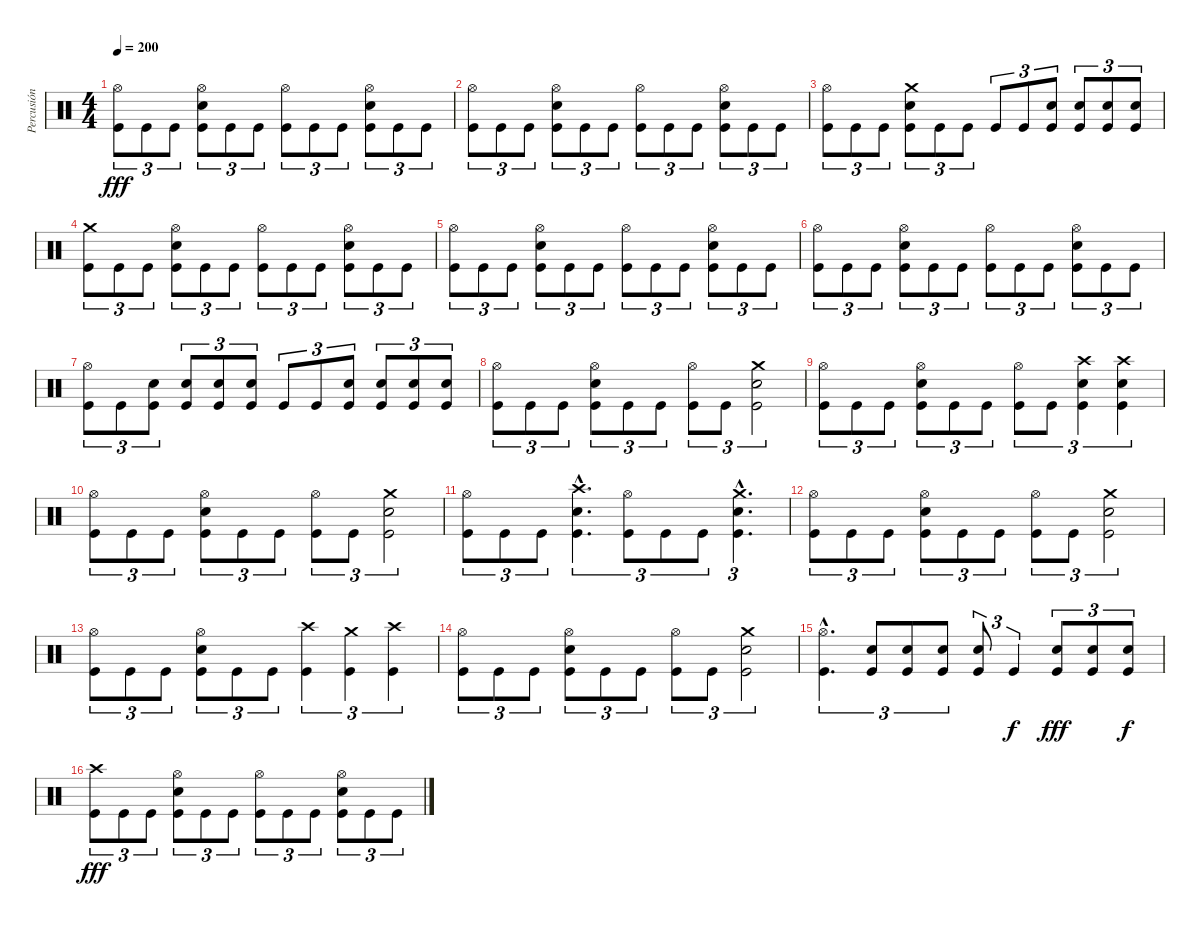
\track ("Percusión" "Percusión") {instrument percussion}
\staff {score}
\articulation defaults
\ts (4 4)
\tempo 200
\clef neutral
\ks c
("Hi-Hat (open)" "Kick (hit)").8{tu (3 2) dy fff} "Kick (hit)".8{tu (3 2)} "Kick (hit)".8{tu (3 2)} ("Hi-Hat (open)" "Electric Snare (hit)" "Kick (hit)").8{tu (3 2)} "Kick (hit)".8{tu (3 2)} "Kick (hit)".8{tu (3 2)} ("Hi-Hat (open)" "Kick (hit)").8{tu (3 2)} "Kick (hit)".8{tu (3 2)} "Kick (hit)".8{tu (3 2)} ("Hi-Hat (open)" "Electric Snare (hit)" "Kick (hit)").8{tu (3 2)} "Kick (hit)".8{tu (3 2)} "Kick (hit)".8{tu (3 2)} |
("Hi-Hat (open)" "Kick (hit)").8{tu (3 2)} "Kick (hit)".8{tu (3 2)} "Kick (hit)".8{tu (3 2)} ("Hi-Hat (open)" "Electric Snare (hit)" "Kick (hit)").8{tu (3 2)} "Kick (hit)".8{tu (3 2)} "Kick (hit)".8{tu (3 2)} ("Hi-Hat (open)" "Kick (hit)").8{tu (3 2)} "Kick (hit)".8{tu (3 2)} "Kick (hit)".8{tu (3 2)} ("Hi-Hat (open)" "Electric Snare (hit)" "Kick (hit)").8{tu (3 2)} "Kick (hit)".8{tu (3 2)} "Kick (hit)".8{tu (3 2)} |
("Hi-Hat (open)" "Kick (hit)").8{tu (3 2)} "Kick (hit)".8{tu (3 2)} "Kick (hit)".8{tu (3 2)} ("Crash medium (hit)" "Electric Snare (hit)" "Kick (hit)").8{tu (3 2)} "Kick (hit)".8{tu (3 2)} "Kick (hit)".8{tu (3 2)} "Kick (hit)".8{tu (3 2)} "Kick (hit)".8{tu (3 2)} ("Electric Snare (hit)" "Kick (hit)").8{tu (3 2)} ("Electric Snare (hit)" "Kick (hit)").8{tu (3 2)} ("Electric Snare (hit)" "Kick (hit)").8{tu (3 2)} ("Electric Snare (hit)" "Kick (hit)").8{tu (3 2)} |
("Crash medium (hit)" "Kick (hit)").8{tu (3 2)} "Kick (hit)".8{tu (3 2)} "Kick (hit)".8{tu (3 2)} ("Hi-Hat (open)" "Electric Snare (hit)" "Kick (hit)").8{tu (3 2)} "Kick (hit)".8{tu (3 2)} "Kick (hit)".8{tu (3 2)} ("Hi-Hat (open)" "Kick (hit)").8{tu (3 2)} "Kick (hit)".8{tu (3 2)} "Kick (hit)".8{tu (3 2)} ("Hi-Hat (open)" "Electric Snare (hit)" "Kick (hit)").8{tu (3 2)} "Kick (hit)".8{tu (3 2)} "Kick (hit)".8{tu (3 2)} |
("Hi-Hat (open)" "Kick (hit)").8{tu (3 2)} "Kick (hit)".8{tu (3 2)} "Kick (hit)".8{tu (3 2)} ("Hi-Hat (open)" "Electric Snare (hit)" "Kick (hit)").8{tu (3 2)} "Kick (hit)".8{tu (3 2)} "Kick (hit)".8{tu (3 2)} ("Hi-Hat (open)" "Kick (hit)").8{tu (3 2)} "Kick (hit)".8{tu (3 2)} "Kick (hit)".8{tu (3 2)} ("Hi-Hat (open)" "Electric Snare (hit)" "Kick (hit)").8{tu (3 2)} "Kick (hit)".8{tu (3 2)} "Kick (hit)".8{tu (3 2)} |
("Hi-Hat (open)" "Kick (hit)").8{tu (3 2)} "Kick (hit)".8{tu (3 2)} "Kick (hit)".8{tu (3 2)} ("Hi-Hat (open)" "Electric Snare (hit)" "Kick (hit)").8{tu (3 2)} "Kick (hit)".8{tu (3 2)} "Kick (hit)".8{tu (3 2)} ("Hi-Hat (open)" "Kick (hit)").8{tu (3 2)} "Kick (hit)".8{tu (3 2)} "Kick (hit)".8{tu (3 2)} ("Hi-Hat (open)" "Electric Snare (hit)" "Kick (hit)").8{tu (3 2)} "Kick (hit)".8{tu (3 2)} "Kick (hit)".8{tu (3 2)} |
("Hi-Hat (open)" "Kick (hit)").8{tu (3 2)} "Kick (hit)".8{tu (3 2)} ("Electric Snare (hit)" "Kick (hit)").8{tu (3 2)} ("Electric Snare (hit)" "Kick (hit)").8{tu (3 2)} ("Electric Snare (hit)" "Kick (hit)").8{tu (3 2)} ("Electric Snare (hit)" "Kick (hit)").8{tu (3 2)} "Kick (hit)".8{tu (3 2)} "Kick (hit)".8{tu (3 2)} ("Electric Snare (hit)" "Kick (hit)").8{tu (3 2)} ("Electric Snare (hit)" "Kick (hit)").8{tu (3 2)} ("Electric Snare (hit)" "Kick (hit)").8{tu (3 2)} ("Electric Snare (hit)" "Kick (hit)").8{tu (3 2)} |
("Hi-Hat (open)" "Kick (hit)").8{tu (3 2)} "Kick (hit)".8{tu (3 2)} "Kick (hit)".8{tu (3 2)} ("Hi-Hat (open)" "Electric Snare (hit)" "Kick (hit)").8{tu (3 2)} "Kick (hit)".8{tu (3 2)} "Kick (hit)".8{tu (3 2)} ("Hi-Hat (open)" "Kick (hit)").8{tu (3 2)} "Kick (hit)".8{tu (3 2)} ("Crash medium (hit)" "Electric Snare (hit)" "Kick (hit)").2{tu (3 2)} |
("Hi-Hat (open)" "Kick (hit)").8{tu (3 2)} "Kick (hit)".8{tu (3 2)} "Kick (hit)".8{tu (3 2)} ("Hi-Hat (open)" "Electric Snare (hit)" "Kick (hit)").8{tu (3 2)} "Kick (hit)".8{tu (3 2)} "Kick (hit)".8{tu (3 2)} ("Hi-Hat (open)" "Kick (hit)").8{tu (3 2)} "Kick (hit)".8{tu (3 2)} ("Crash high (hit)" "Electric Snare (hit)" "Kick (hit)").4{tu (3 2)} ("Crash high (hit)" "Electric Snare (hit)" "Kick (hit)").4{tu (3 2)} |
("Hi-Hat (open)" "Kick (hit)").8{tu (3 2)} "Kick (hit)".8{tu (3 2)} "Kick (hit)".8{tu (3 2)} ("Hi-Hat (open)" "Electric Snare (hit)" "Kick (hit)").8{tu (3 2)} "Kick (hit)".8{tu (3 2)} "Kick (hit)".8{tu (3 2)} ("Hi-Hat (open)" "Kick (hit)").8{tu (3 2)} "Kick (hit)".8{tu (3 2)} ("Crash medium (hit)" "Electric Snare (hit)" "Kick (hit)").2{tu (3 2)} |
("Hi-Hat (open)" "Kick (hit)").8{tu (3 2)} "Kick (hit)".8{tu (3 2)} "Kick (hit)".8{tu (3 2)} ("Crash high (hit)"{hac} "Electric Snare (hit)"{hac} "Kick (hit)"{hac}).4{d tu (3 2)} ("Hi-Hat (open)" "Kick (hit)").8{tu (3 2)} "Kick (hit)".8{tu (3 2)} "Kick (hit)".8{tu (3 2)} ("Crash medium (hit)"{hac} "Electric Snare (hit)"{hac} "Kick (hit)"{hac}).4{d tu (3 2)} |
("Hi-Hat (open)" "Kick (hit)").8{tu (3 2)} "Kick (hit)".8{tu (3 2)} "Kick (hit)".8{tu (3 2)} ("Hi-Hat (open)" "Electric Snare (hit)" "Kick (hit)").8{tu (3 2)} "Kick (hit)".8{tu (3 2)} "Kick (hit)".8{tu (3 2)} ("Hi-Hat (open)" "Kick (hit)").8{tu (3 2)} "Kick (hit)".8{tu (3 2)} ("Crash medium (hit)" "Electric Snare (hit)" "Kick (hit)").2{tu (3 2)} |
("Hi-Hat (open)" "Kick (hit)").8{tu (3 2)} "Kick (hit)".8{tu (3 2)} "Kick (hit)".8{tu (3 2)} ("Hi-Hat (open)" "Electric Snare (hit)" "Kick (hit)").8{tu (3 2)} "Kick (hit)".8{tu (3 2)} "Kick (hit)".8{tu (3 2)} ("Crash high (hit)" "Kick (hit)").4{tu (3 2)} ("Crash medium (hit)" "Kick (hit)").4{tu (3 2)} ("Crash high (hit)" "Kick (hit)").4{tu (3 2)} |
("Hi-Hat (open)" "Kick (hit)").8{tu (3 2)} "Kick (hit)".8{tu (3 2)} "Kick (hit)".8{tu (3 2)} ("Hi-Hat (open)" "Electric Snare (hit)" "Kick (hit)").8{tu (3 2)} "Kick (hit)".8{tu (3 2)} "Kick (hit)".8{tu (3 2)} ("Hi-Hat (open)" "Kick (hit)").8{tu (3 2)} "Kick (hit)".8{tu (3 2)} ("Crash medium (hit)" "Electric Snare (hit)" "Kick (hit)").2{tu (3 2)} |
("Hi-Hat (open)"{hac} "Kick (hit)"{hac}).4{d tu (3 2)} ("Electric Snare (hit)" "Kick (hit)").8{tu (3 2)} ("Electric Snare (hit)" "Kick (hit)").8{tu (3 2)} ("Electric Snare (hit)" "Kick (hit)").8{tu (3 2)} ("Electric Snare (hit)" "Kick (hit)").8{tu (3 2)} "Kick (hit)".4{tu (3 2) dy f} ("Electric Snare (hit)" "Kick (hit)").8{tu (3 2) dy fff} ("Electric Snare (hit)" "Kick (hit)").8{tu (3 2)} ("Electric Snare (hit)" "Kick (hit)").8{tu (3 2) dy f} |
("Crash high (hit)" "Kick (hit)").8{tu (3 2) dy fff} "Kick (hit)".8{tu (3 2)} "Kick (hit)".8{tu (3 2)} ("Hi-Hat (open)" "Electric Snare (hit)" "Kick (hit)").8{tu (3 2)} "Kick (hit)".8{tu (3 2)} "Kick (hit)".8{tu (3 2)} ("Hi-Hat (open)" "Kick (hit)").8{tu (3 2)} "Kick (hit)".8{tu (3 2)} "Kick (hit)".8{tu (3 2)} ("Hi-Hat (open)" "Electric Snare (hit)" "Kick (hit)").8{tu (3 2)} "Kick (hit)".8{tu (3 2)} "Kick (hit)".8{tu (3 2)}
